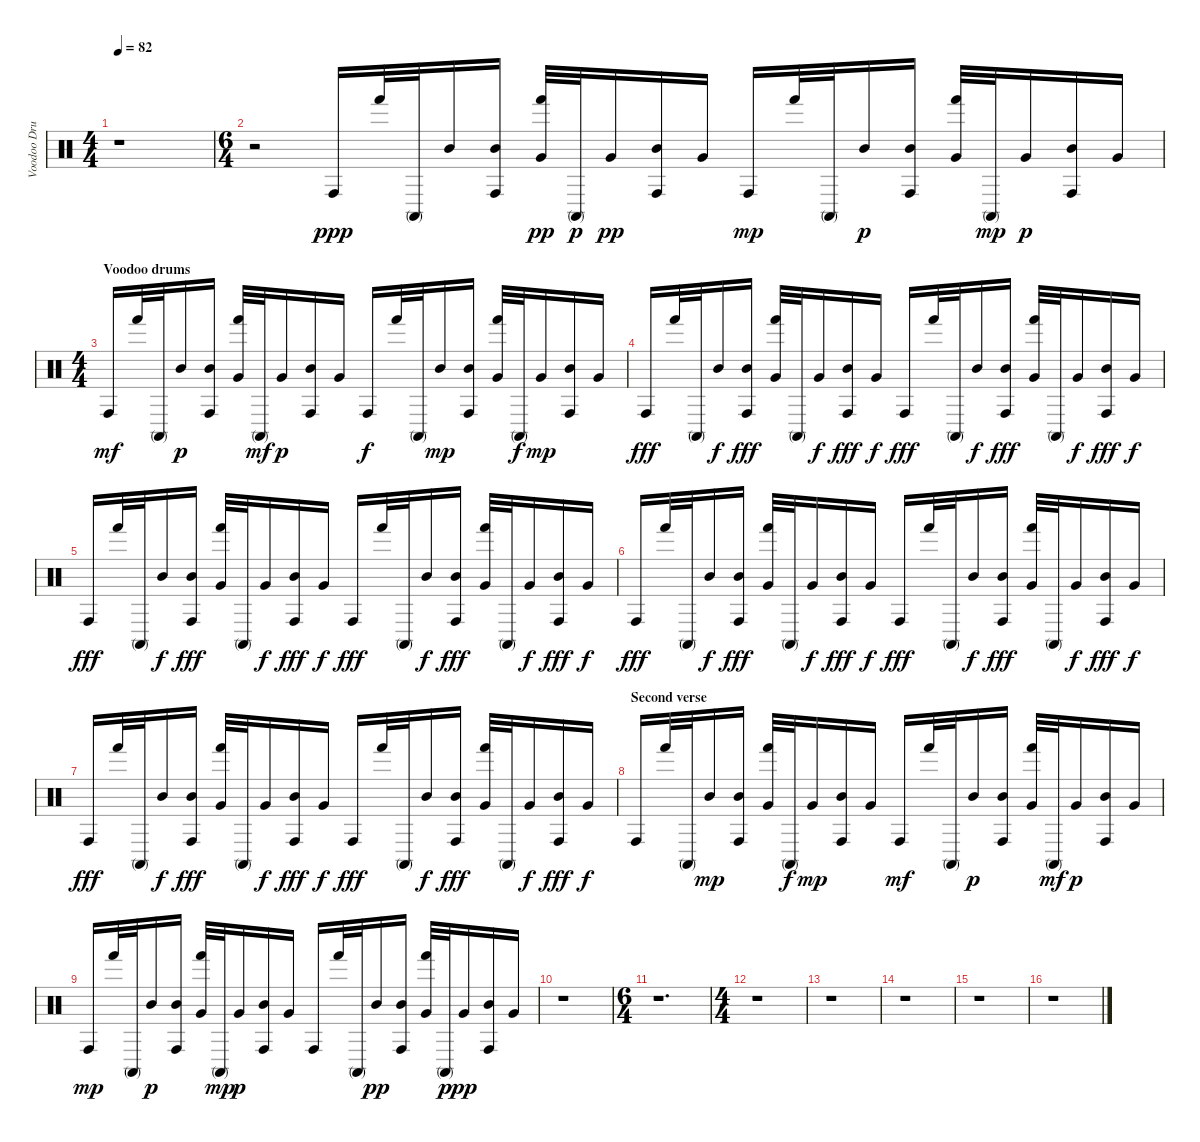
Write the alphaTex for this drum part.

\track ("Voodoo Drums" "Voodoo Dru") {instrument percussion}
\staff {score}
\articulation defaults
\ts (4 4)
\tempo 82
\clef neutral
\ks c
r.1{dy ppp} |
\ts (6 4)
r.2 "Conga high (hit)".16 "Hand (hit)".32 "Conga high (mute)".32 "Mid Tom (hit)".16 ("Conga high (hit)" "Mid Tom (hit)").16 ("Hand (hit)" "Very Low Tom (hit)").32{dy pp} "Conga high (mute)".32{dy p} "Very Low Tom (hit)".16{dy pp} ("Conga high (hit)" "Mid Tom (hit)").16 "Very Low Tom (hit)".16 "Conga high (hit)".16{dy mp} "Hand (hit)".32 "Conga high (mute)".32 "Mid Tom (hit)".16{dy p} ("Conga high (hit)" "Mid Tom (hit)").16 ("Hand (hit)" "Very Low Tom (hit)").32 "Conga high (mute)".32{dy mp} "Very Low Tom (hit)".16{dy p} ("Conga high (hit)" "Mid Tom (hit)").16 "Very Low Tom (hit)".16 |
\ts (4 4)
\section ("" "Voodoo drums")
"Conga high (hit)".16{dy mf} "Hand (hit)".32 "Conga high (mute)".32 "Mid Tom (hit)".16{dy p} ("Conga high (hit)" "Mid Tom (hit)").16 ("Hand (hit)" "Very Low Tom (hit)").32 "Conga high (mute)".32{dy mf} "Very Low Tom (hit)".16{dy p} ("Conga high (hit)" "Mid Tom (hit)").16 "Very Low Tom (hit)".16 "Conga high (hit)".16{dy f} "Hand (hit)".32 "Conga high (mute)".32 "Mid Tom (hit)".16{dy mp} ("Conga high (hit)" "Mid Tom (hit)").16 ("Hand (hit)" "Very Low Tom (hit)").32 "Conga high (mute)".32{dy f} "Very Low Tom (hit)".16{dy mp} ("Conga high (hit)" "Mid Tom (hit)").16 "Very Low Tom (hit)".16 |
"Conga high (hit)".16{dy fff} "Hand (hit)".32 "Conga high (mute)".32 "Mid Tom (hit)".16{dy f} ("Conga high (hit)" "Mid Tom (hit)").16{dy fff} ("Hand (hit)" "Very Low Tom (hit)").32 "Conga high (mute)".32 "Very Low Tom (hit)".16{dy f} ("Conga high (hit)" "Mid Tom (hit)").16{dy fff} "Very Low Tom (hit)".16{dy f} "Conga high (hit)".16{dy fff} "Hand (hit)".32 "Conga high (mute)".32 "Mid Tom (hit)".16{dy f} ("Conga high (hit)" "Mid Tom (hit)").16{dy fff} ("Hand (hit)" "Very Low Tom (hit)").32 "Conga high (mute)".32 "Very Low Tom (hit)".16{dy f} ("Conga high (hit)" "Mid Tom (hit)").16{dy fff} "Very Low Tom (hit)".16{dy f} |
"Conga high (hit)".16{dy fff} "Hand (hit)".32 "Conga high (mute)".32 "Mid Tom (hit)".16{dy f} ("Conga high (hit)" "Mid Tom (hit)").16{dy fff} ("Hand (hit)" "Very Low Tom (hit)").32 "Conga high (mute)".32 "Very Low Tom (hit)".16{dy f} ("Conga high (hit)" "Mid Tom (hit)").16{dy fff} "Very Low Tom (hit)".16{dy f} "Conga high (hit)".16{dy fff} "Hand (hit)".32 "Conga high (mute)".32 "Mid Tom (hit)".16{dy f} ("Conga high (hit)" "Mid Tom (hit)").16{dy fff} ("Hand (hit)" "Very Low Tom (hit)").32 "Conga high (mute)".32 "Very Low Tom (hit)".16{dy f} ("Conga high (hit)" "Mid Tom (hit)").16{dy fff} "Very Low Tom (hit)".16{dy f} |
"Conga high (hit)".16{dy fff} "Hand (hit)".32 "Conga high (mute)".32 "Mid Tom (hit)".16{dy f} ("Conga high (hit)" "Mid Tom (hit)").16{dy fff} ("Hand (hit)" "Very Low Tom (hit)").32 "Conga high (mute)".32 "Very Low Tom (hit)".16{dy f} ("Conga high (hit)" "Mid Tom (hit)").16{dy fff} "Very Low Tom (hit)".16{dy f} "Conga high (hit)".16{dy fff} "Hand (hit)".32 "Conga high (mute)".32 "Mid Tom (hit)".16{dy f} ("Conga high (hit)" "Mid Tom (hit)").16{dy fff} ("Hand (hit)" "Very Low Tom (hit)").32 "Conga high (mute)".32 "Very Low Tom (hit)".16{dy f} ("Conga high (hit)" "Mid Tom (hit)").16{dy fff} "Very Low Tom (hit)".16{dy f} |
"Conga high (hit)".16{dy fff} "Hand (hit)".32 "Conga high (mute)".32 "Mid Tom (hit)".16{dy f} ("Conga high (hit)" "Mid Tom (hit)").16{dy fff} ("Hand (hit)" "Very Low Tom (hit)").32 "Conga high (mute)".32 "Very Low Tom (hit)".16{dy f} ("Conga high (hit)" "Mid Tom (hit)").16{dy fff} "Very Low Tom (hit)".16{dy f} "Conga high (hit)".16{dy fff} "Hand (hit)".32 "Conga high (mute)".32 "Mid Tom (hit)".16{dy f} ("Conga high (hit)" "Mid Tom (hit)").16{dy fff} ("Hand (hit)" "Very Low Tom (hit)").32 "Conga high (mute)".32 "Very Low Tom (hit)".16{dy f} ("Conga high (hit)" "Mid Tom (hit)").16{dy fff} "Very Low Tom (hit)".16{dy f} |
\section ("" "Second verse")
"Conga high (hit)".16 "Hand (hit)".32 "Conga high (mute)".32 "Mid Tom (hit)".16{dy mp} ("Conga high (hit)" "Mid Tom (hit)").16 ("Hand (hit)" "Very Low Tom (hit)").32 "Conga high (mute)".32{dy f} "Very Low Tom (hit)".16{dy mp} ("Conga high (hit)" "Mid Tom (hit)").16 "Very Low Tom (hit)".16 "Conga high (hit)".16{dy mf} "Hand (hit)".32 "Conga high (mute)".32 "Mid Tom (hit)".16{dy p} ("Conga high (hit)" "Mid Tom (hit)").16 ("Hand (hit)" "Very Low Tom (hit)").32 "Conga high (mute)".32{dy mf} "Very Low Tom (hit)".16{dy p} ("Conga high (hit)" "Mid Tom (hit)").16 "Very Low Tom (hit)".16 |
"Conga high (hit)".16{dy mp} "Hand (hit)".32 "Conga high (mute)".32 "Mid Tom (hit)".16{dy p} ("Conga high (hit)" "Mid Tom (hit)").16 ("Hand (hit)" "Very Low Tom (hit)").32 "Conga high (mute)".32{dy mp} "Very Low Tom (hit)".16{dy p} ("Conga high (hit)" "Mid Tom (hit)").16 "Very Low Tom (hit)".16 "Conga high (hit)".16 "Hand (hit)".32 "Conga high (mute)".32 "Mid Tom (hit)".16{dy pp} ("Conga high (hit)" "Mid Tom (hit)").16 ("Hand (hit)" "Very Low Tom (hit)").32 "Conga high (mute)".32{dy p} "Very Low Tom (hit)".16{dy pp} ("Conga high (hit)" "Mid Tom (hit)").16 "Very Low Tom (hit)".16 |
r.1 |
\ts (6 4)
r.1{d} |
\ts (4 4)
r.1 |
r.1 |
r.1 |
r.1 |
r.1
